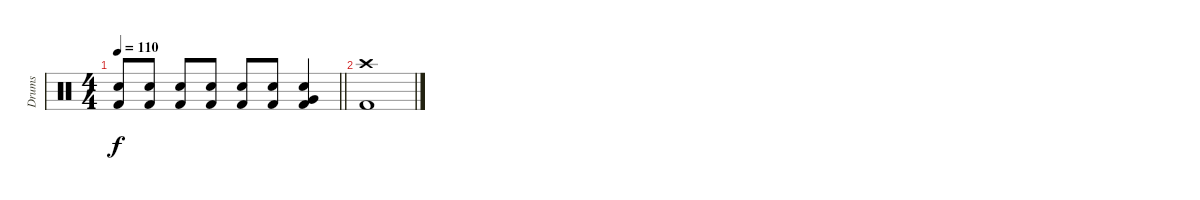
\track ("Drums" "Drums") {instrument percussion}
\staff {score}
\articulation defaults
\ts (4 4)
\tempo 110
\clef neutral
\barLineRight lightlight
\ks c
("Snare (hit) 2" "Kick (hit) 2").8{dy f volume 5} ("Snare (hit) 2" "Kick (hit) 2").8{volume 12} ("Snare (hit) 2" "Kick (hit) 2").8 ("Snare (hit) 2" "Kick (hit) 2").8 ("Snare (hit) 2" "Kick (hit) 2").8 ("Snare (hit) 2" "Kick (hit) 2").8 ("Snare (hit) 2" "Very Low Tom (hit)" "Kick (hit) 2").4 |
("Crash high (hit)" "Kick (hit) 2").1
